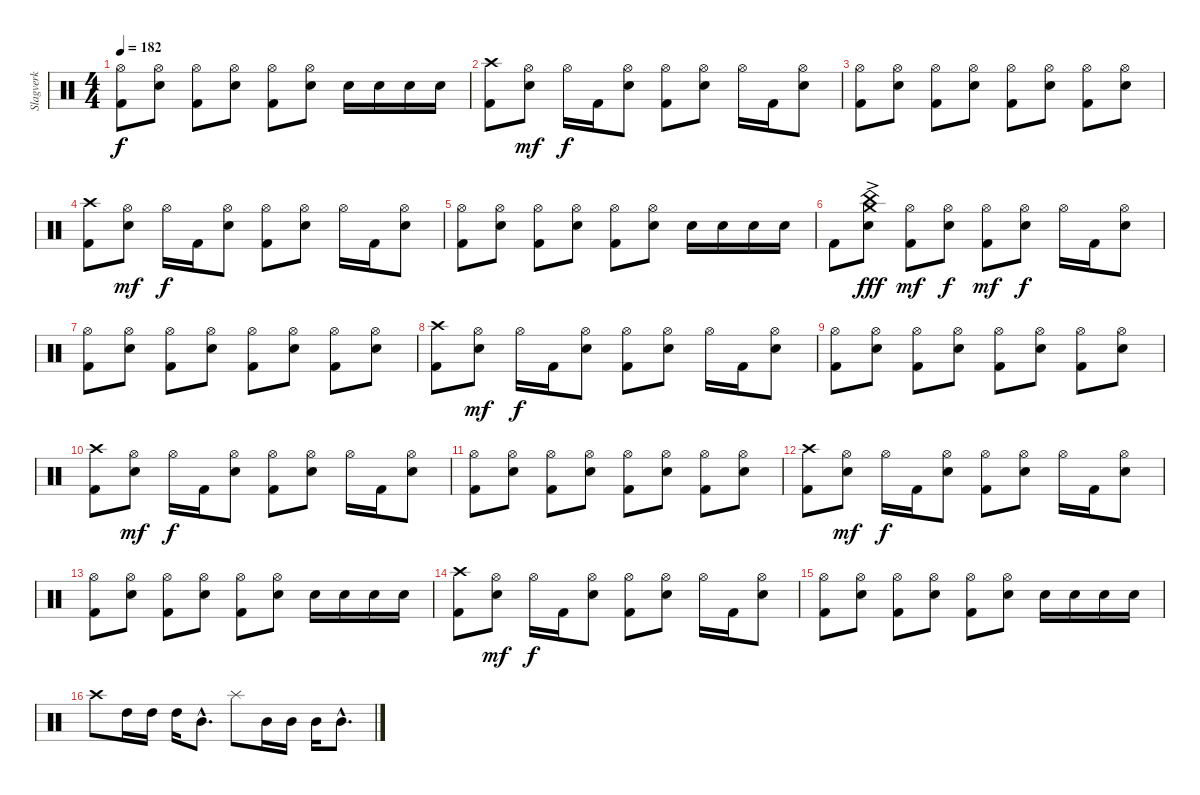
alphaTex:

\track ("Slagverk" "Slagverk") {instrument percussion}
\staff {score}
\articulation defaults
\ts (4 4)
\tempo 182
\clef neutral
\ks c
("Hi-Hat (open)" "Kick (hit) 2").8{dy f} ("Hi-Hat (open)" "Electric Snare (hit)").8 ("Hi-Hat (open)" "Kick (hit) 2").8 ("Hi-Hat (open)" "Electric Snare (hit)").8 ("Hi-Hat (open)" "Kick (hit) 2").8 ("Hi-Hat (open)" "Electric Snare (hit)").8 "Electric Snare (hit)".16 "Electric Snare (hit)".16 "Electric Snare (hit)".16 "Electric Snare (hit)".16 |
("Crash high (hit)" "Kick (hit) 2").8 ("Hi-Hat (open)" "Electric Snare (hit)").8{dy mf} "Hi-Hat (open)".16{dy f} "Kick (hit) 2".16 ("Hi-Hat (open)" "Electric Snare (hit)").8 ("Hi-Hat (open)" "Kick (hit) 2").8 ("Hi-Hat (open)" "Electric Snare (hit)").8 "Hi-Hat (open)".16 "Kick (hit) 2".16 ("Hi-Hat (open)" "Electric Snare (hit)").8 |
("Hi-Hat (open)" "Kick (hit) 2").8 ("Hi-Hat (open)" "Electric Snare (hit)").8 ("Hi-Hat (open)" "Kick (hit) 2").8 ("Hi-Hat (open)" "Electric Snare (hit)").8 ("Hi-Hat (open)" "Kick (hit) 2").8 ("Hi-Hat (open)" "Electric Snare (hit)").8 ("Hi-Hat (open)" "Kick (hit) 2").8 ("Hi-Hat (open)" "Electric Snare (hit)").8 |
("Crash high (hit)" "Kick (hit) 2").8 ("Hi-Hat (open)" "Electric Snare (hit)").8{dy mf} "Hi-Hat (open)".16{dy f} "Kick (hit) 2".16 ("Hi-Hat (open)" "Electric Snare (hit)").8 ("Hi-Hat (open)" "Kick (hit) 2").8 ("Hi-Hat (open)" "Electric Snare (hit)").8 "Hi-Hat (open)".16 "Kick (hit) 2".16 ("Hi-Hat (open)" "Electric Snare (hit)").8 |
("Hi-Hat (open)" "Kick (hit) 2").8 ("Hi-Hat (open)" "Electric Snare (hit)").8 ("Hi-Hat (open)" "Kick (hit) 2").8 ("Hi-Hat (open)" "Electric Snare (hit)").8 ("Hi-Hat (open)" "Kick (hit) 2").8 ("Hi-Hat (open)" "Electric Snare (hit)").8 "Electric Snare (hit)".16 "Electric Snare (hit)".16 "Electric Snare (hit)".16 "Electric Snare (hit)".16 |
"Kick (hit) 2".8 ("China (hit)" "Crash medium (hit)" "Electric Snare (hit)"{ac}).8{dy fff} ("Hi-Hat (open)" "Kick (hit) 2").8{dy mf} ("Hi-Hat (open)" "Electric Snare (hit)").8{dy f} ("Hi-Hat (open)" "Kick (hit) 2").8{dy mf} ("Hi-Hat (open)" "Electric Snare (hit)").8{dy f} "Hi-Hat (open)".16 "Kick (hit) 2".16 ("Hi-Hat (open)" "Electric Snare (hit)").8 |
("Hi-Hat (open)" "Kick (hit) 2").8 ("Hi-Hat (open)" "Electric Snare (hit)").8 ("Hi-Hat (open)" "Kick (hit) 2").8 ("Hi-Hat (open)" "Electric Snare (hit)").8 ("Hi-Hat (open)" "Kick (hit) 2").8 ("Hi-Hat (open)" "Electric Snare (hit)").8 ("Hi-Hat (open)" "Kick (hit) 2").8 ("Hi-Hat (open)" "Electric Snare (hit)").8 |
("Crash high (hit)" "Kick (hit) 2").8 ("Hi-Hat (open)" "Electric Snare (hit)").8{dy mf} "Hi-Hat (open)".16{dy f} "Kick (hit) 2".16 ("Hi-Hat (open)" "Electric Snare (hit)").8 ("Hi-Hat (open)" "Kick (hit) 2").8 ("Hi-Hat (open)" "Electric Snare (hit)").8 "Hi-Hat (open)".16 "Kick (hit) 2".16 ("Hi-Hat (open)" "Electric Snare (hit)").8 |
("Hi-Hat (open)" "Kick (hit) 2").8 ("Hi-Hat (open)" "Electric Snare (hit)").8 ("Hi-Hat (open)" "Kick (hit) 2").8 ("Hi-Hat (open)" "Electric Snare (hit)").8 ("Hi-Hat (open)" "Kick (hit) 2").8 ("Hi-Hat (open)" "Electric Snare (hit)").8 ("Hi-Hat (open)" "Kick (hit) 2").8 ("Hi-Hat (open)" "Electric Snare (hit)").8 |
("Crash high (hit)" "Kick (hit) 2").8 ("Hi-Hat (open)" "Electric Snare (hit)").8{dy mf} "Hi-Hat (open)".16{dy f} "Kick (hit) 2".16 ("Hi-Hat (open)" "Electric Snare (hit)").8 ("Hi-Hat (open)" "Kick (hit) 2").8 ("Hi-Hat (open)" "Electric Snare (hit)").8 "Hi-Hat (open)".16 "Kick (hit) 2".16 ("Hi-Hat (open)" "Electric Snare (hit)").8 |
("Hi-Hat (open)" "Kick (hit) 2").8 ("Hi-Hat (open)" "Electric Snare (hit)").8 ("Hi-Hat (open)" "Kick (hit) 2").8 ("Hi-Hat (open)" "Electric Snare (hit)").8 ("Hi-Hat (open)" "Kick (hit) 2").8 ("Hi-Hat (open)" "Electric Snare (hit)").8 ("Hi-Hat (open)" "Kick (hit) 2").8 ("Hi-Hat (open)" "Electric Snare (hit)").8 |
("Crash high (hit)" "Kick (hit) 2").8 ("Hi-Hat (open)" "Electric Snare (hit)").8{dy mf} "Hi-Hat (open)".16{dy f} "Kick (hit) 2".16 ("Hi-Hat (open)" "Electric Snare (hit)").8 ("Hi-Hat (open)" "Kick (hit) 2").8 ("Hi-Hat (open)" "Electric Snare (hit)").8 "Hi-Hat (open)".16 "Kick (hit) 2".16 ("Hi-Hat (open)" "Electric Snare (hit)").8 |
("Hi-Hat (open)" "Kick (hit) 2").8 ("Hi-Hat (open)" "Electric Snare (hit)").8 ("Hi-Hat (open)" "Kick (hit) 2").8 ("Hi-Hat (open)" "Electric Snare (hit)").8 ("Hi-Hat (open)" "Kick (hit) 2").8 ("Hi-Hat (open)" "Electric Snare (hit)").8 "Electric Snare (hit)".16 "Electric Snare (hit)".16 "Electric Snare (hit)".16 "Electric Snare (hit)".16 |
("Crash high (hit)" "Kick (hit) 2").8 ("Hi-Hat (open)" "Electric Snare (hit)").8{dy mf} "Hi-Hat (open)".16{dy f} "Kick (hit) 2".16 ("Hi-Hat (open)" "Electric Snare (hit)").8 ("Hi-Hat (open)" "Kick (hit) 2").8 ("Hi-Hat (open)" "Electric Snare (hit)").8 "Hi-Hat (open)".16 "Kick (hit) 2".16 ("Hi-Hat (open)" "Electric Snare (hit)").8 |
("Hi-Hat (open)" "Kick (hit) 2").8 ("Hi-Hat (open)" "Electric Snare (hit)").8 ("Hi-Hat (open)" "Kick (hit) 2").8 ("Hi-Hat (open)" "Electric Snare (hit)").8 ("Hi-Hat (open)" "Kick (hit) 2").8 ("Hi-Hat (open)" "Electric Snare (hit)").8 "Electric Snare (hit)".16 "Electric Snare (hit)".16 "Electric Snare (hit)".16 "Electric Snare (hit)".16 |
"Crash high (hit)".8 "High Tom (hit)".16 "High Tom (hit)".16 "High Tom (hit)".16 "Mid Tom (hit)"{hac}.8{d} "Splash (hit)".8 "Mid Tom (hit)".16 "Mid Tom (hit)".16 "Mid Tom (hit)".16 "Mid Tom (hit)"{hac}.8{d}
